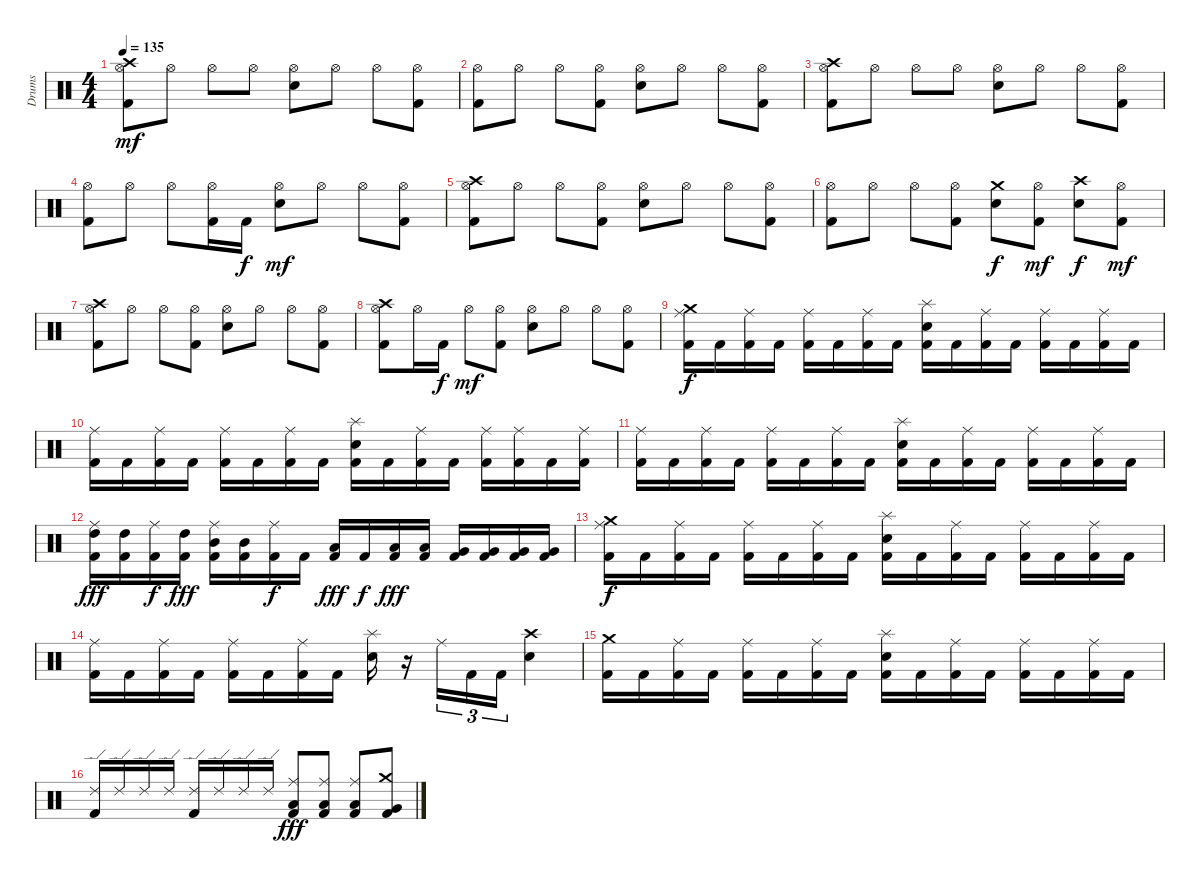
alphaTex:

\track ("Drums" "Drums") {instrument percussion}
\staff {score}
\articulation defaults
\ts (4 4)
\tempo 135
\clef neutral
\ks c
("Kick (hit) 2" "Hi-Hat (open)" "Crash high (hit)").8{dy mf} "Hi-Hat (open)".8 "Hi-Hat (open)".8 "Hi-Hat (open)".8 ("Snare (hit) 2" "Hi-Hat (open)").8 "Hi-Hat (open)".8 "Hi-Hat (open)".8 ("Kick (hit) 2" "Hi-Hat (open)").8 |
("Kick (hit) 2" "Hi-Hat (open)").8 "Hi-Hat (open)".8 "Hi-Hat (open)".8 ("Kick (hit) 2" "Hi-Hat (open)").8 ("Snare (hit) 2" "Hi-Hat (open)").8 "Hi-Hat (open)".8 "Hi-Hat (open)".8 ("Kick (hit) 2" "Hi-Hat (open)").8 |
("Kick (hit) 2" "Hi-Hat (open)" "Crash high (hit)").8 "Hi-Hat (open)".8 "Hi-Hat (open)".8 "Hi-Hat (open)".8 ("Snare (hit) 2" "Hi-Hat (open)").8 "Hi-Hat (open)".8 "Hi-Hat (open)".8 ("Kick (hit) 2" "Hi-Hat (open)").8 |
("Kick (hit) 2" "Hi-Hat (open)").8 "Hi-Hat (open)".8 "Hi-Hat (open)".8 ("Kick (hit) 2" "Hi-Hat (open)").16 "Kick (hit) 2".16{dy f} ("Snare (hit) 2" "Hi-Hat (open)").8{dy mf} "Hi-Hat (open)".8 "Hi-Hat (open)".8 ("Kick (hit) 2" "Hi-Hat (open)").8 |
("Kick (hit) 2" "Hi-Hat (open)" "Crash high (hit)").8 "Hi-Hat (open)".8 "Hi-Hat (open)".8 ("Kick (hit) 2" "Hi-Hat (open)").8 ("Snare (hit) 2" "Hi-Hat (open)").8 "Hi-Hat (open)".8 "Hi-Hat (open)".8 ("Kick (hit) 2" "Hi-Hat (open)").8 |
("Kick (hit) 2" "Hi-Hat (open)").8 "Hi-Hat (open)".8 "Hi-Hat (open)".8 ("Kick (hit) 2" "Hi-Hat (open)").8 ("Snare (hit) 2" "Crash medium (hit)").8{dy f} ("Kick (hit) 2" "Hi-Hat (open)").8{dy mf} ("Snare (hit) 2" "Crash high (hit)").8{dy f} ("Kick (hit) 2" "Hi-Hat (open)").8{dy mf} |
("Kick (hit) 2" "Hi-Hat (open)" "Crash high (hit)").8 "Hi-Hat (open)".8 "Hi-Hat (open)".8 ("Kick (hit) 2" "Hi-Hat (open)").8 ("Snare (hit) 2" "Hi-Hat (open)").8 "Hi-Hat (open)".8 "Hi-Hat (open)".8 ("Kick (hit) 2" "Hi-Hat (open)").8 |
("Kick (hit) 2" "Hi-Hat (open)" "Crash high (hit)").8 "Hi-Hat (open)".16 "Kick (hit) 2".16{dy f} "Hi-Hat (open)".8{dy mf} ("Kick (hit) 2" "Hi-Hat (open)").8 ("Snare (hit) 2" "Hi-Hat (open)").8 "Hi-Hat (open)".8 "Hi-Hat (open)".8 ("Kick (hit) 2" "Hi-Hat (open)").8 |
("Kick (hit) 2" "Ride (middle)" "Crash medium (hit)").16{dy f} "Kick (hit) 2".16 ("Kick (hit) 2" "Ride (middle)").16 "Kick (hit) 2".16 ("Kick (hit) 2" "Ride (middle)").16 "Kick (hit) 2".16 ("Kick (hit) 2" "Ride (middle)").16 "Kick (hit) 2".16 ("Kick (hit) 2" "Snare (hit) 2" "Splash (hit)").16 "Kick (hit) 2".16 ("Kick (hit) 2" "Ride (middle)").16 "Kick (hit) 2".16 ("Kick (hit) 2" "Ride (middle)").16 "Kick (hit) 2".16 ("Kick (hit) 2" "Ride (middle)").16 "Kick (hit) 2".16 |
("Kick (hit) 2" "Ride (middle)").16 "Kick (hit) 2".16 ("Kick (hit) 2" "Ride (middle)").16 "Kick (hit) 2".16 ("Kick (hit) 2" "Ride (middle)").16 "Kick (hit) 2".16 ("Kick (hit) 2" "Ride (middle)").16 "Kick (hit) 2".16 ("Kick (hit) 2" "Snare (hit) 2" "Splash (hit)").16 "Kick (hit) 2".16 ("Kick (hit) 2" "Ride (middle)").16 "Kick (hit) 2".16 ("Kick (hit) 2" "Ride (middle)").16 ("Kick (hit) 2" "Ride (middle)").16 "Kick (hit) 2".16 ("Kick (hit) 2" "Ride (middle)").16 |
("Kick (hit) 2" "Ride (middle)").16 "Kick (hit) 2".16 ("Kick (hit) 2" "Ride (middle)").16 "Kick (hit) 2".16 ("Kick (hit) 2" "Ride (middle)").16 "Kick (hit) 2".16 ("Kick (hit) 2" "Ride (middle)").16 "Kick (hit) 2".16 ("Kick (hit) 2" "Snare (hit) 2" "Splash (hit)").16 "Kick (hit) 2".16 ("Kick (hit) 2" "Ride (middle)").16 "Kick (hit) 2".16 ("Kick (hit) 2" "Ride (middle)").16 "Kick (hit) 2".16 ("Kick (hit) 2" "Ride (middle)").16 "Kick (hit) 2".16 |
("Kick (hit) 2" "High Tom (hit)" "Ride (middle)").16{dy fff} ("Kick (hit) 2" "High Tom (hit)").16 ("Kick (hit) 2" "Ride (middle)").16{dy f} ("Kick (hit) 2" "High Tom (hit)").16{dy fff} ("Kick (hit) 2" "Mid Tom (hit)" "Ride (middle)").16 ("Kick (hit) 2" "Mid Tom (hit)").16 ("Kick (hit) 2" "Ride (middle)").16{dy f} "Kick (hit) 2".16 ("Kick (hit) 2" "Low Tom (hit)").16{dy fff} "Kick (hit) 2".16{dy f} ("Kick (hit) 2" "Low Tom (hit)").16{dy fff} ("Kick (hit) 2" "Low Tom (hit)").16 ("Kick (hit) 2" "Very Low Tom (hit)").16 ("Kick (hit) 2" "Very Low Tom (hit)").16 ("Kick (hit) 2" "Very Low Tom (hit)").16 ("Kick (hit) 2" "Very Low Tom (hit)").16 |
("Kick (hit) 2" "Ride (middle)" "Crash medium (hit)").16{dy f} "Kick (hit) 2".16 ("Kick (hit) 2" "Ride (middle)").16 "Kick (hit) 2".16 ("Kick (hit) 2" "Ride (middle)").16 "Kick (hit) 2".16 ("Kick (hit) 2" "Ride (middle)").16 "Kick (hit) 2".16 ("Kick (hit) 2" "Snare (hit) 2" "Splash (hit)").16 "Kick (hit) 2".16 ("Kick (hit) 2" "Ride (middle)").16 "Kick (hit) 2".16 ("Kick (hit) 2" "Ride (middle)").16 "Kick (hit) 2".16 ("Kick (hit) 2" "Ride (middle)").16 "Kick (hit) 2".16 |
("Kick (hit) 2" "Ride (middle)").16 "Kick (hit) 2".16 ("Kick (hit) 2" "Ride (middle)").16 "Kick (hit) 2".16 ("Kick (hit) 2" "Ride (middle)").16 "Kick (hit) 2".16 ("Kick (hit) 2" "Ride (middle)").16 "Kick (hit) 2".16 ("Snare (hit) 2" "Splash (hit)").16 r.16 "Ride (middle)".16{tu (3 2)} "Kick (hit) 2".16{tu (3 2)} "Kick (hit) 2".16{tu (3 2)} ("Snare (hit) 2" "Crash high (hit)").4 |
("Kick (hit) 2" "Crash medium (hit)").16 "Kick (hit) 2".16 ("Kick (hit) 2" "Ride (middle)").16 "Kick (hit) 2".16 ("Kick (hit) 2" "Ride (middle)").16 "Kick (hit) 2".16 ("Kick (hit) 2" "Ride (middle)").16 "Kick (hit) 2".16 ("Kick (hit) 2" "Snare (hit) 2" "Splash (hit)").16 "Kick (hit) 2".16 ("Kick (hit) 2" "Ride (middle)").16 "Kick (hit) 2".16 ("Kick (hit) 2" "Ride (middle)").16 "Kick (hit) 2".16 ("Kick (hit) 2" "Ride (middle)").16 "Kick (hit) 2".16 |
("Kick (hit) 2" "Ride (edge) 2").16 "Ride (edge) 2".16 "Ride (edge) 2".16 "Ride (edge) 2".16 ("Kick (hit) 2" "Ride (edge) 2").16 "Ride (edge) 2".16 "Ride (edge) 2".16 "Ride (edge) 2".16 ("Kick (hit) 2" "Low Tom (hit)" "Ride (middle)").8{dy fff} ("Kick (hit) 2" "Low Tom (hit)" "Ride (middle)").8 ("Kick (hit) 2" "Low Tom (hit)" "Ride (middle)").8 ("Kick (hit) 2" "Very Low Tom (hit)" "Crash medium (hit)").8
